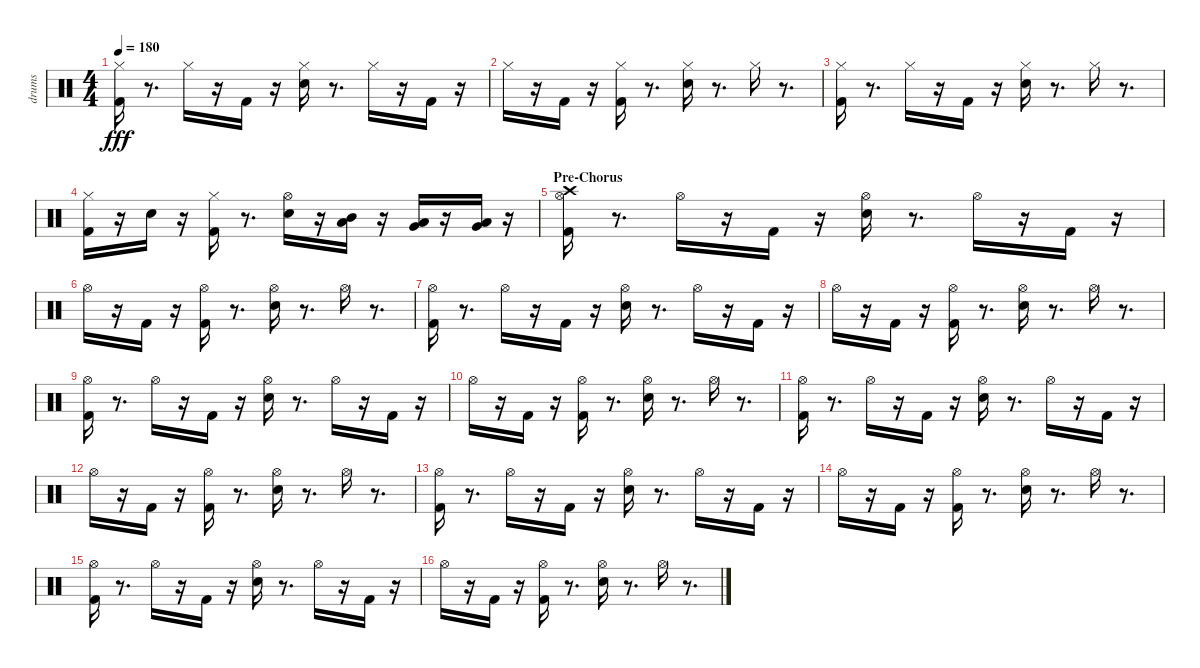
\track ("drums" "drums") {instrument percussion}
\staff {score}
\articulation defaults
\ts (4 4)
\tempo 180
\clef neutral
\ks c
("Kick (hit) 2" "Hi-Hat (closed)").16{dy fff} r.8{d} "Hi-Hat (closed)".16 r.16 "Kick (hit) 2".16 r.16 ("Electric Snare (hit)" "Hi-Hat (closed)").16 r.8{d} "Hi-Hat (closed)".16 r.16 "Kick (hit) 2".16 r.16 |
"Hi-Hat (closed)".16 r.16 "Kick (hit) 2".16 r.16 ("Hi-Hat (closed)" "Kick (hit) 2").16 r.8{d} ("Hi-Hat (closed)" "Electric Snare (hit)").16 r.8{d} "Hi-Hat (closed)".16 r.8{d} |
("Kick (hit) 2" "Hi-Hat (closed)").16 r.8{d} "Hi-Hat (closed)".16 r.16 "Kick (hit) 2".16 r.16 ("Electric Snare (hit)" "Hi-Hat (closed)").16 r.8{d} "Hi-Hat (closed)".16 r.8{d} |
("Hi-Hat (closed)" "Kick (hit) 2").16 r.16 "Electric Snare (hit)".16 r.16 ("Kick (hit) 2" "Hi-Hat (closed)").16 r.8{d} ("Hi-Hat (open)" "Electric Snare (hit)").16 r.16 ("Mid Tom (hit)" "Low Tom (hit)").16 r.16 ("Low Tom (hit)" "Very Low Tom (hit)").16 r.16 ("Very Low Tom (hit)" "Low Floor Tom (hit)").16 r.16 |
\section ("" "Pre-Chorus")
("Crash high (hit)" "Kick (hit) 2" "Hi-Hat (open)").16 r.8{d} "Hi-Hat (open)".16 r.16 "Kick (hit) 2".16 r.16 ("Electric Snare (hit)" "Hi-Hat (open)").16 r.8{d} "Hi-Hat (open)".16 r.16 "Kick (hit) 2".16 r.16 |
"Hi-Hat (open)".16 r.16 "Kick (hit) 2".16 r.16 ("Hi-Hat (open)" "Kick (hit) 2").16 r.8{d} ("Hi-Hat (open)" "Electric Snare (hit)").16 r.8{d} "Hi-Hat (open)".16 r.8{d} |
("Kick (hit) 2" "Hi-Hat (open)").16 r.8{d} "Hi-Hat (open)".16 r.16 "Kick (hit) 2".16 r.16 ("Electric Snare (hit)" "Hi-Hat (open)").16 r.8{d} "Hi-Hat (open)".16 r.16 "Kick (hit) 2".16 r.16 |
"Hi-Hat (open)".16 r.16 "Kick (hit) 2".16 r.16 ("Hi-Hat (open)" "Kick (hit) 2").16 r.8{d} ("Hi-Hat (open)" "Electric Snare (hit)").16 r.8{d} "Hi-Hat (open)".16 r.8{d} |
("Kick (hit) 2" "Hi-Hat (open)").16 r.8{d} "Hi-Hat (open)".16 r.16 "Kick (hit) 2".16 r.16 ("Electric Snare (hit)" "Hi-Hat (open)").16 r.8{d} "Hi-Hat (open)".16 r.16 "Kick (hit) 2".16 r.16 |
"Hi-Hat (open)".16 r.16 "Kick (hit) 2".16 r.16 ("Hi-Hat (open)" "Kick (hit) 2").16 r.8{d} ("Hi-Hat (open)" "Electric Snare (hit)").16 r.8{d} "Hi-Hat (open)".16 r.8{d} |
("Kick (hit) 2" "Hi-Hat (open)").16 r.8{d} "Hi-Hat (open)".16 r.16 "Kick (hit) 2".16 r.16 ("Electric Snare (hit)" "Hi-Hat (open)").16 r.8{d} "Hi-Hat (open)".16 r.16 "Kick (hit) 2".16 r.16 |
"Hi-Hat (open)".16 r.16 "Kick (hit) 2".16 r.16 ("Hi-Hat (open)" "Kick (hit) 2").16 r.8{d} ("Hi-Hat (open)" "Electric Snare (hit)").16 r.8{d} "Hi-Hat (open)".16 r.8{d} |
("Kick (hit) 2" "Hi-Hat (open)").16 r.8{d} "Hi-Hat (open)".16 r.16 "Kick (hit) 2".16 r.16 ("Electric Snare (hit)" "Hi-Hat (open)").16 r.8{d} "Hi-Hat (open)".16 r.16 "Kick (hit) 2".16 r.16 |
"Hi-Hat (open)".16 r.16 "Kick (hit) 2".16 r.16 ("Hi-Hat (open)" "Kick (hit) 2").16 r.8{d} ("Hi-Hat (open)" "Electric Snare (hit)").16 r.8{d} "Hi-Hat (open)".16 r.8{d} |
("Kick (hit) 2" "Hi-Hat (open)").16 r.8{d} "Hi-Hat (open)".16 r.16 "Kick (hit) 2".16 r.16 ("Electric Snare (hit)" "Hi-Hat (open)").16 r.8{d} "Hi-Hat (open)".16 r.16 "Kick (hit) 2".16 r.16 |
"Hi-Hat (open)".16 r.16 "Kick (hit) 2".16 r.16 ("Hi-Hat (open)" "Kick (hit) 2").16 r.8{d} ("Hi-Hat (open)" "Electric Snare (hit)").16 r.8{d} "Hi-Hat (open)".16 r.8{d}
